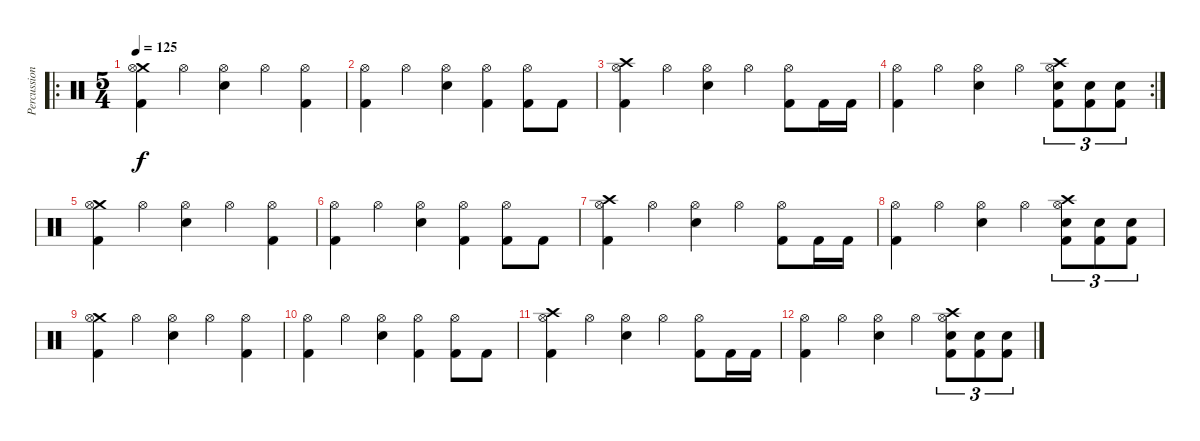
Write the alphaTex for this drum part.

\track ("Percussion" "Percussion") {instrument percussion}
\staff {score}
\articulation defaults
\ro
\ts (5 4)
\tempo 125
\clef neutral
\ks c
("Crash medium (hit)" "Hi-Hat (open)" "Kick (hit) 2").4{dy f} "Hi-Hat (open)".4 ("Hi-Hat (open)" "Electric Snare (hit)").4 "Hi-Hat (open)".4 ("Hi-Hat (open)" "Kick (hit) 2").4 |
("Hi-Hat (open)" "Kick (hit) 2").4 "Hi-Hat (open)".4 ("Hi-Hat (open)" "Electric Snare (hit)").4 ("Hi-Hat (open)" "Kick (hit) 2").4 ("Hi-Hat (open)" "Kick (hit) 2").8 "Kick (hit) 2".8 |
("Crash high (hit)" "Hi-Hat (open)" "Kick (hit) 2").4 "Hi-Hat (open)".4 ("Hi-Hat (open)" "Electric Snare (hit)").4 "Hi-Hat (open)".4 ("Hi-Hat (open)" "Kick (hit) 2").8 "Kick (hit) 2".16 "Kick (hit) 2".16 |
\rc 2
("Hi-Hat (open)" "Kick (hit) 2").4 "Hi-Hat (open)".4 ("Hi-Hat (open)" "Electric Snare (hit)").4 "Hi-Hat (open)".4 ("Crash high (hit)" "Hi-Hat (open)" "Electric Snare (hit)" "Kick (hit) 2").8{tu (3 2)} ("Electric Snare (hit)" "Kick (hit) 2").8{tu (3 2)} ("Electric Snare (hit)" "Kick (hit) 2").8{tu (3 2)} |
("Crash medium (hit)" "Hi-Hat (open)" "Kick (hit) 2").4 "Hi-Hat (open)".4 ("Hi-Hat (open)" "Electric Snare (hit)").4 "Hi-Hat (open)".4 ("Hi-Hat (open)" "Kick (hit) 2").4 |
("Hi-Hat (open)" "Kick (hit) 2").4 "Hi-Hat (open)".4 ("Hi-Hat (open)" "Electric Snare (hit)").4 ("Hi-Hat (open)" "Kick (hit) 2").4 ("Hi-Hat (open)" "Kick (hit) 2").8 "Kick (hit) 2".8 |
("Crash high (hit)" "Hi-Hat (open)" "Kick (hit) 2").4{volume 9} "Hi-Hat (open)".4 ("Hi-Hat (open)" "Electric Snare (hit)").4 "Hi-Hat (open)".4 ("Hi-Hat (open)" "Kick (hit) 2").8 "Kick (hit) 2".16 "Kick (hit) 2".16 |
("Hi-Hat (open)" "Kick (hit) 2").4 "Hi-Hat (open)".4 ("Hi-Hat (open)" "Electric Snare (hit)").4 "Hi-Hat (open)".4 ("Crash high (hit)" "Hi-Hat (open)" "Electric Snare (hit)" "Kick (hit) 2").8{tu (3 2)} ("Electric Snare (hit)" "Kick (hit) 2").8{tu (3 2)} ("Electric Snare (hit)" "Kick (hit) 2").8{tu (3 2)} |
("Crash medium (hit)" "Hi-Hat (open)" "Kick (hit) 2").4 "Hi-Hat (open)".4 ("Hi-Hat (open)" "Electric Snare (hit)").4 "Hi-Hat (open)".4 ("Hi-Hat (open)" "Kick (hit) 2").4 |
("Hi-Hat (open)" "Kick (hit) 2").4{volume 0} "Hi-Hat (open)".4 ("Hi-Hat (open)" "Electric Snare (hit)").4 ("Hi-Hat (open)" "Kick (hit) 2").4 ("Hi-Hat (open)" "Kick (hit) 2").8 "Kick (hit) 2".8 |
("Crash high (hit)" "Hi-Hat (open)" "Kick (hit) 2").4 "Hi-Hat (open)".4 ("Hi-Hat (open)" "Electric Snare (hit)").4 "Hi-Hat (open)".4 ("Hi-Hat (open)" "Kick (hit) 2").8 "Kick (hit) 2".16 "Kick (hit) 2".16 |
("Hi-Hat (open)" "Kick (hit) 2").4 "Hi-Hat (open)".4 ("Hi-Hat (open)" "Electric Snare (hit)").4 "Hi-Hat (open)".4 ("Crash high (hit)" "Hi-Hat (open)" "Electric Snare (hit)" "Kick (hit) 2").8{tu (3 2)} ("Electric Snare (hit)" "Kick (hit) 2").8{tu (3 2)} ("Electric Snare (hit)" "Kick (hit) 2").8{tu (3 2)}
